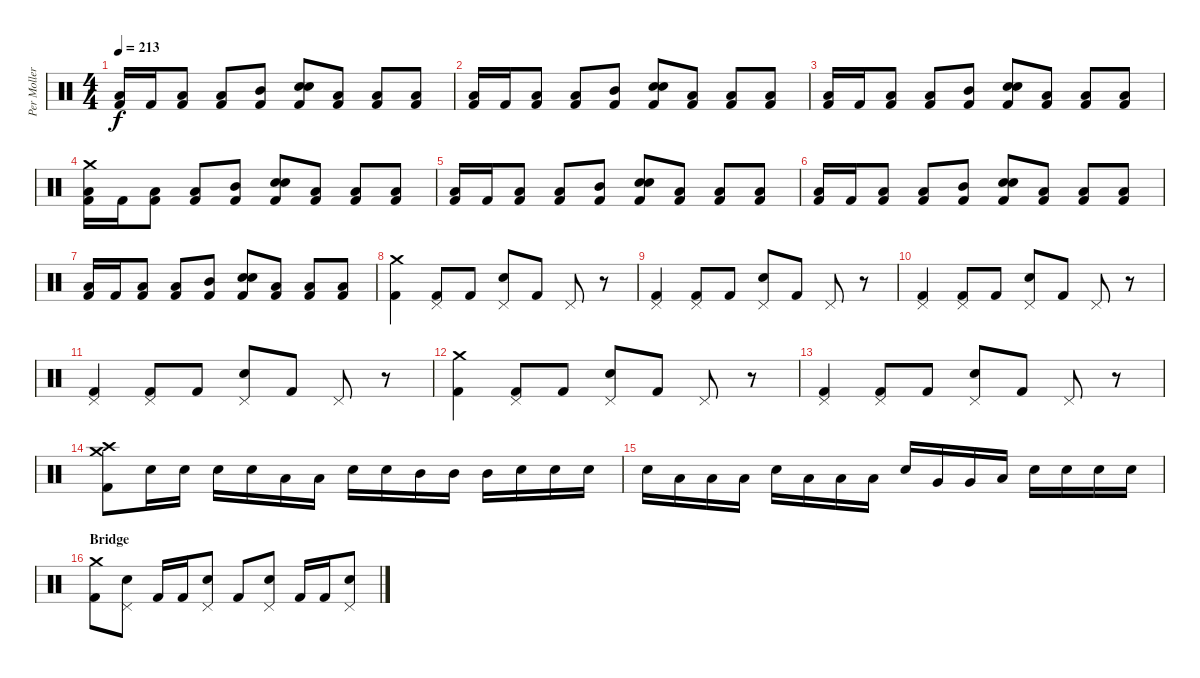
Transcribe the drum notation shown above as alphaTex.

\track ("Per Moller Jensen" "Per Moller") {instrument percussion}
\staff {score}
\articulation defaults
\ts (4 4)
\tempo 213
\clef neutral
\ks c
("Low Tom (hit)" "Kick (hit) 2").16{dy f} "Kick (hit) 2".16 ("Low Tom (hit)" "Kick (hit) 2").8 ("Low Tom (hit)" "Kick (hit) 2").8 ("Mid Tom (hit)" "Kick (hit) 2").8 ("Snare (hit) 2" "Snare (hit) 2" "Kick (hit) 2").8 ("Low Tom (hit)" "Kick (hit) 2").8 ("Low Floor Tom (hit)" "Kick (hit) 2").8 ("Low Floor Tom (hit)" "Kick (hit) 2").8 |
("Low Tom (hit)" "Kick (hit) 2").16 "Kick (hit) 2".16 ("Low Tom (hit)" "Kick (hit) 2").8 ("Low Tom (hit)" "Kick (hit) 2").8 ("Mid Tom (hit)" "Kick (hit) 2").8 ("Snare (hit) 2" "Snare (hit) 2" "Kick (hit) 2").8 ("Low Tom (hit)" "Kick (hit) 2").8 ("Low Floor Tom (hit)" "Kick (hit) 2").8 ("Low Floor Tom (hit)" "Kick (hit) 2").8 |
("Low Tom (hit)" "Kick (hit) 2").16 "Kick (hit) 2".16 ("Low Tom (hit)" "Kick (hit) 2").8 ("Low Tom (hit)" "Kick (hit) 2").8 ("Mid Tom (hit)" "Kick (hit) 2").8 ("Snare (hit) 2" "Snare (hit) 2" "Kick (hit) 2").8 ("Low Tom (hit)" "Kick (hit) 2").8 ("Low Floor Tom (hit)" "Kick (hit) 2").8 ("Low Floor Tom (hit)" "Kick (hit) 2").8 |
("Crash medium (hit)" "Low Tom (hit)" "Kick (hit) 2").16 "Kick (hit) 2".16 ("Low Tom (hit)" "Kick (hit) 2").8 ("Low Tom (hit)" "Kick (hit) 2").8 ("Mid Tom (hit)" "Kick (hit) 2").8 ("Snare (hit) 2" "Snare (hit) 2" "Kick (hit) 2").8 ("Low Tom (hit)" "Kick (hit) 2").8 ("Low Floor Tom (hit)" "Kick (hit) 2").8 ("Low Floor Tom (hit)" "Kick (hit) 2").8 |
("Low Tom (hit)" "Kick (hit) 2").16 "Kick (hit) 2".16 ("Low Tom (hit)" "Kick (hit) 2").8 ("Low Tom (hit)" "Kick (hit) 2").8 ("Mid Tom (hit)" "Kick (hit) 2").8 ("Snare (hit) 2" "Snare (hit) 2" "Kick (hit) 2").8 ("Low Tom (hit)" "Kick (hit) 2").8 ("Low Floor Tom (hit)" "Kick (hit) 2").8 ("Low Floor Tom (hit)" "Kick (hit) 2").8 |
("Low Tom (hit)" "Kick (hit) 2").16 "Kick (hit) 2".16 ("Low Tom (hit)" "Kick (hit) 2").8 ("Low Tom (hit)" "Kick (hit) 2").8 ("Mid Tom (hit)" "Kick (hit) 2").8 ("Snare (hit) 2" "Snare (hit) 2" "Kick (hit) 2").8 ("Low Tom (hit)" "Kick (hit) 2").8 ("Low Floor Tom (hit)" "Kick (hit) 2").8 ("Low Floor Tom (hit)" "Kick (hit) 2").8 |
("Low Tom (hit)" "Kick (hit) 2").16 "Kick (hit) 2".16 ("Low Tom (hit)" "Kick (hit) 2").8 ("Low Tom (hit)" "Kick (hit) 2").8 ("Mid Tom (hit)" "Kick (hit) 2").8 ("Snare (hit) 2" "Snare (hit) 2" "Kick (hit) 2").8 ("Low Tom (hit)" "Kick (hit) 2").8 ("Low Floor Tom (hit)" "Kick (hit) 2").8 ("Low Floor Tom (hit)" "Kick (hit) 2").8 |
("Crash medium (hit)" "Kick (hit) 2").4 ("Pedal Hi-Hat (hit)" "Kick (hit) 2").8 "Kick (hit) 2".8 ("Pedal Hi-Hat (hit)" "Snare (hit) 2").8 "Kick (hit) 2".8 "Pedal Hi-Hat (hit)".8 r.8 |
("Pedal Hi-Hat (hit)" "Kick (hit) 2").4 ("Pedal Hi-Hat (hit)" "Kick (hit) 2").8 "Kick (hit) 2".8 ("Pedal Hi-Hat (hit)" "Snare (hit) 2").8 "Kick (hit) 2".8 "Pedal Hi-Hat (hit)".8 r.8 |
("Pedal Hi-Hat (hit)" "Kick (hit) 2").4 ("Pedal Hi-Hat (hit)" "Kick (hit) 2").8 "Kick (hit) 2".8 ("Pedal Hi-Hat (hit)" "Snare (hit) 2").8 "Kick (hit) 2".8 "Pedal Hi-Hat (hit)".8 r.8 |
("Pedal Hi-Hat (hit)" "Kick (hit) 2").4 ("Pedal Hi-Hat (hit)" "Kick (hit) 2").8 "Kick (hit) 2".8 ("Pedal Hi-Hat (hit)" "Snare (hit) 2").8 "Kick (hit) 2".8 "Pedal Hi-Hat (hit)".8 r.8 |
("Crash medium (hit)" "Kick (hit) 2").4 ("Pedal Hi-Hat (hit)" "Kick (hit) 2").8 "Kick (hit) 2".8 ("Pedal Hi-Hat (hit)" "Snare (hit) 2").8 "Kick (hit) 2".8 "Pedal Hi-Hat (hit)".8 r.8 |
("Pedal Hi-Hat (hit)" "Kick (hit) 2").4 ("Pedal Hi-Hat (hit)" "Kick (hit) 2").8 "Kick (hit) 2".8 ("Pedal Hi-Hat (hit)" "Snare (hit) 2").8 "Kick (hit) 2".8 "Pedal Hi-Hat (hit)".8 r.8 |
("Crash medium (hit)" "Crash high (hit)" "Kick (hit) 2").8 "Snare (hit) 2".16 "Snare (hit) 2".16 "Snare (hit) 2".16 "Snare (hit) 2".16 "Low Tom (hit)".16 "Low Tom (hit)".16 "Snare (hit) 2".16 "Snare (hit) 2".16 "Mid Tom (hit)".16 "Mid Tom (hit)".16 "Mid Tom (hit)".16 "Snare (hit) 2".16 "Snare (hit) 2".16 "Snare (hit) 2".16 |
"Snare (hit) 2".16 "Low Floor Tom (hit)".16 "Low Floor Tom (hit)".16 "Low Floor Tom (hit)".16 "Snare (hit) 2".16 "Low Floor Tom (hit)".16 "Low Floor Tom (hit)".16 "Low Floor Tom (hit)".16 "Snare (hit) 2".16 "Very Low Tom (hit)".16 "Very Low Tom (hit)".16 "Low Floor Tom (hit)".16 "Snare (hit) 2".16 "Snare (hit) 2".16 "Snare (hit) 2".16 "Snare (hit) 2".16 |
\section ("" "Bridge")
("Crash medium (hit)" "Kick (hit) 2").8 ("Pedal Hi-Hat (hit)" "Snare (hit) 2").8 "Kick (hit) 2".16 "Kick (hit) 2".16 ("Pedal Hi-Hat (hit)" "Snare (hit) 2").8 "Kick (hit) 2".8 ("Pedal Hi-Hat (hit)" "Snare (hit) 2").8 "Kick (hit) 2".16 "Kick (hit) 2".16 ("Pedal Hi-Hat (hit)" "Snare (hit) 2").8
